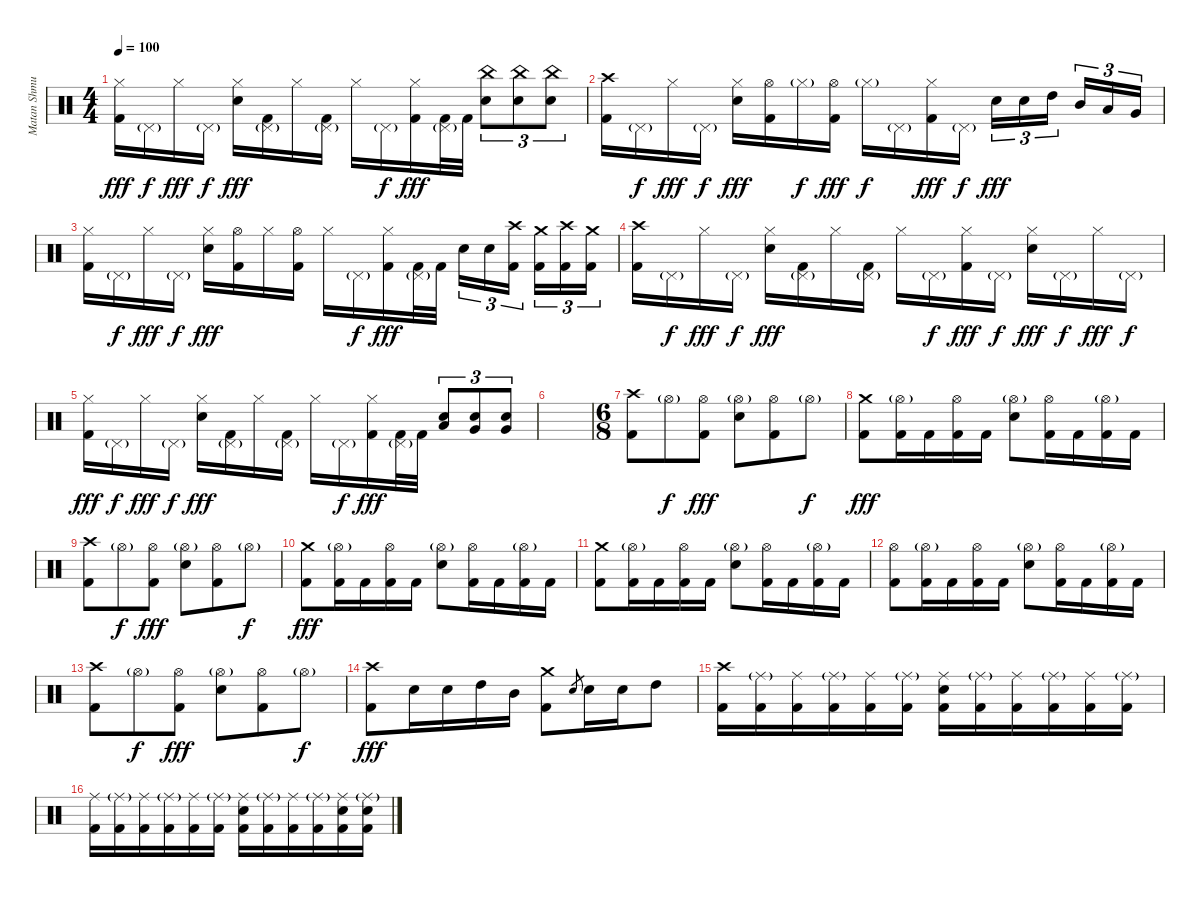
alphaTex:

\track ("Matan Shmuely" "Matan Shmu") {instrument percussion}
\staff {score}
\articulation defaults
\ts (4 4)
\tempo 100
\clef neutral
\ks c
("Kick (hit) 2" "Hi-Hat (closed)").16{dy fff} "Pedal Hi-Hat (hit)"{g}.16{dy f} "Hi-Hat (closed)".16{dy fff} "Pedal Hi-Hat (hit)"{g}.16{dy f} ("Electric Snare (hit)" "Hi-Hat (closed)").16{dy fff} ("Kick (hit) 2" "Pedal Hi-Hat (hit)"{g}).16 "Hi-Hat (closed)".16 ("Kick (hit) 2" "Pedal Hi-Hat (hit)"{g}).16 "Hi-Hat (closed)".16 "Pedal Hi-Hat (hit)"{g}.16{dy f} ("Kick (hit) 2" "Hi-Hat (closed)").16{dy fff} ("Kick (hit) 2" "Pedal Hi-Hat (hit)"{g}).32 "Kick (hit) 2".32 ("Electric Snare (hit)" "China (hit)").8{tu (3 2)} ("Electric Snare (hit)" "China (hit)").8{tu (3 2)} ("Electric Snare (hit)" "China (hit)").8{tu (3 2)} |
("Kick (hit) 2" "Crash high (hit)").16 "Pedal Hi-Hat (hit)"{g}.16{dy f} "Hi-Hat (closed)".16{dy fff} "Pedal Hi-Hat (hit)"{g}.16{dy f} ("Electric Snare (hit)" "Hi-Hat (closed)").16{dy fff} ("Kick (hit) 2" "Hi-Hat (open)").16 "Hi-Hat (closed)"{g}.16{dy f} ("Kick (hit) 2" "Hi-Hat (open)").16{dy fff} "Hi-Hat (closed)"{g}.16{dy f} "Pedal Hi-Hat (hit)"{g}.16 ("Kick (hit) 2" "Hi-Hat (closed)").16{dy fff} "Pedal Hi-Hat (hit)"{g}.16{dy f} "Electric Snare (hit)".16{tu (3 2) dy fff} "Electric Snare (hit)".16{tu (3 2)} "High Tom (hit)".16{tu (3 2) beam splitsecondary} "Mid Tom (hit)".16{tu (3 2)} "Low Tom (hit)".16{tu (3 2)} "Very Low Tom (hit)".16{tu (3 2)} |
("Kick (hit) 2" "Hi-Hat (closed)").16 "Pedal Hi-Hat (hit)"{g}.16{dy f} "Hi-Hat (closed)".16{dy fff} "Pedal Hi-Hat (hit)"{g}.16{dy f} ("Electric Snare (hit)" "Hi-Hat (closed)").16{dy fff} ("Kick (hit) 2" "Hi-Hat (open)").16 "Hi-Hat (closed)".16 ("Kick (hit) 2" "Hi-Hat (open)").16 "Hi-Hat (closed)".16 "Pedal Hi-Hat (hit)"{g}.16{dy f} ("Kick (hit) 2" "Hi-Hat (closed)").16{dy fff} ("Kick (hit) 2" "Pedal Hi-Hat (hit)"{g}).32 "Kick (hit) 2".32 "Electric Snare (hit)".16{tu (3 2)} "Electric Snare (hit)".16{tu (3 2)} ("Kick (hit) 2" "Crash high (hit)").16{tu (3 2) beam splitsecondary} ("Kick (hit) 2" "Crash medium (hit)").16{tu (3 2)} ("Kick (hit) 2" "Crash high (hit)").16{tu (3 2)} ("Kick (hit) 2" "Crash medium (hit)").16{tu (3 2)} |
("Kick (hit) 2" "Crash high (hit)").16 "Pedal Hi-Hat (hit)"{g}.16{dy f} "Hi-Hat (closed)".16{dy fff} "Pedal Hi-Hat (hit)"{g}.16{dy f} ("Electric Snare (hit)" "Hi-Hat (closed)").16{dy fff} ("Kick (hit) 2" "Pedal Hi-Hat (hit)"{g}).16 "Hi-Hat (closed)".16 ("Kick (hit) 2" "Pedal Hi-Hat (hit)"{g}).16 "Hi-Hat (closed)".16 "Pedal Hi-Hat (hit)"{g}.16{dy f} ("Kick (hit) 2" "Hi-Hat (closed)").16{dy fff} "Pedal Hi-Hat (hit)"{g}.16{dy f} ("Electric Snare (hit)" "Hi-Hat (closed)").16{dy fff} "Pedal Hi-Hat (hit)"{g}.16{dy f} "Hi-Hat (closed)".16{dy fff} "Pedal Hi-Hat (hit)"{g}.16{dy f} |
("Kick (hit) 2" "Hi-Hat (closed)").16{dy fff} "Pedal Hi-Hat (hit)"{g}.16{dy f} "Hi-Hat (closed)".16{dy fff} "Pedal Hi-Hat (hit)"{g}.16{dy f} ("Electric Snare (hit)" "Hi-Hat (closed)").16{dy fff} ("Kick (hit) 2" "Pedal Hi-Hat (hit)"{g}).16 "Hi-Hat (closed)".16 ("Kick (hit) 2" "Pedal Hi-Hat (hit)"{g}).16 "Hi-Hat (closed)".16 "Pedal Hi-Hat (hit)"{g}.16{dy f} ("Kick (hit) 2" "Hi-Hat (closed)").16{dy fff} ("Kick (hit) 2" "Pedal Hi-Hat (hit)"{g}).32 "Kick (hit) 2".32 ("Electric Snare (hit)" "Low Tom (hit)").8{tu (3 2)} ("Electric Snare (hit)" "Very Low Tom (hit)").8{tu (3 2)} ("Electric Snare (hit)" "Very Low Tom (hit)").8{tu (3 2)} |
|
\ts (6 8)
("Kick (hit) 2" "Crash high (hit)").8 "Hi-Hat (open)"{g}.8{dy f} ("Kick (hit) 2" "Hi-Hat (open)").8{dy fff} ("Electric Snare (hit)" "Hi-Hat (open)"{g}).8 ("Kick (hit) 2" "Hi-Hat (open)").8 "Hi-Hat (open)"{g}.8{dy f} |
("Kick (hit) 2" "Crash medium (hit)").8{dy fff} ("Kick (hit) 2" "Hi-Hat (open)"{g}).16 "Kick (hit) 2".16 ("Kick (hit) 2" "Hi-Hat (open)").16 "Kick (hit) 2".16 ("Electric Snare (hit)" "Hi-Hat (open)"{g}).8 ("Kick (hit) 2" "Hi-Hat (open)").16 "Kick (hit) 2".16 ("Kick (hit) 2" "Hi-Hat (open)"{g}).16 "Kick (hit) 2".16 |
("Kick (hit) 2" "Crash high (hit)").8 "Hi-Hat (open)"{g}.8{dy f} ("Kick (hit) 2" "Hi-Hat (open)").8{dy fff} ("Electric Snare (hit)" "Hi-Hat (open)"{g}).8 ("Kick (hit) 2" "Hi-Hat (open)").8 "Hi-Hat (open)"{g}.8{dy f} |
("Kick (hit) 2" "Crash medium (hit)").8{dy fff} ("Kick (hit) 2" "Hi-Hat (open)"{g}).16 "Kick (hit) 2".16 ("Kick (hit) 2" "Hi-Hat (open)").16 "Kick (hit) 2".16 ("Electric Snare (hit)" "Hi-Hat (open)"{g}).8 ("Kick (hit) 2" "Hi-Hat (open)").16 "Kick (hit) 2".16 ("Kick (hit) 2" "Hi-Hat (open)"{g}).16 "Kick (hit) 2".16 |
("Kick (hit) 2" "Crash medium (hit)").8 ("Kick (hit) 2" "Hi-Hat (open)"{g}).16 "Kick (hit) 2".16 ("Kick (hit) 2" "Hi-Hat (open)").16 "Kick (hit) 2".16 ("Electric Snare (hit)" "Hi-Hat (open)"{g}).8 ("Kick (hit) 2" "Hi-Hat (open)").16 "Kick (hit) 2".16 ("Kick (hit) 2" "Hi-Hat (open)"{g}).16 "Kick (hit) 2".16 |
("Kick (hit) 2" "Hi-Hat (open)").8 ("Kick (hit) 2" "Hi-Hat (open)"{g}).16 "Kick (hit) 2".16 ("Kick (hit) 2" "Hi-Hat (open)").16 "Kick (hit) 2".16 ("Electric Snare (hit)" "Hi-Hat (open)"{g}).8 ("Kick (hit) 2" "Hi-Hat (open)").16 "Kick (hit) 2".16 ("Kick (hit) 2" "Hi-Hat (open)"{g}).16 "Kick (hit) 2".16 |
("Kick (hit) 2" "Crash high (hit)").8 "Hi-Hat (open)"{g}.8{dy f} ("Kick (hit) 2" "Hi-Hat (open)").8{dy fff} ("Electric Snare (hit)" "Hi-Hat (open)"{g}).8 ("Kick (hit) 2" "Hi-Hat (open)").8 "Hi-Hat (open)"{g}.8{dy f} |
("Kick (hit) 2" "Crash high (hit)").8{dy fff} "Electric Snare (hit)".16 "Electric Snare (hit)".16 "High Tom (hit)".16 "Mid Tom (hit)".16 ("Kick (hit) 2" "Crash medium (hit)").8 "Electric Snare (hit)".8{gr} "Electric Snare (hit)".16 "Electric Snare (hit)".16 "High Tom (hit)".8 |
("Kick (hit) 2" "Crash high (hit)").16 ("Kick (hit) 2" "Ride (middle)"{g}).16 ("Kick (hit) 2" "Ride (middle)").16 ("Kick (hit) 2" "Ride (middle)"{g}).16 ("Kick (hit) 2" "Ride (middle)").16 ("Kick (hit) 2" "Ride (middle)"{g}).16 ("Kick (hit) 2" "Electric Snare (hit)" "Ride (middle)").16 ("Kick (hit) 2" "Ride (middle)"{g}).16 ("Kick (hit) 2" "Ride (middle)").16 ("Kick (hit) 2" "Ride (middle)"{g}).16 ("Kick (hit) 2" "Ride (middle)").16 ("Kick (hit) 2" "Ride (middle)"{g}).16 |
("Kick (hit) 2" "Ride (middle)").16 ("Kick (hit) 2" "Ride (middle)"{g}).16 ("Kick (hit) 2" "Ride (middle)").16 ("Kick (hit) 2" "Ride (middle)"{g}).16 ("Kick (hit) 2" "Ride (middle)").16 ("Kick (hit) 2" "Ride (middle)"{g}).16 ("Kick (hit) 2" "Electric Snare (hit)" "Ride (middle)").16 ("Kick (hit) 2" "Ride (middle)"{g}).16 ("Kick (hit) 2" "Ride (middle)").16 ("Kick (hit) 2" "Ride (middle)"{g}).16 ("Kick (hit) 2" "Electric Snare (hit)" "Ride (middle)").16 ("Kick (hit) 2" "Electric Snare (hit)" "Ride (middle)"{g}).16
